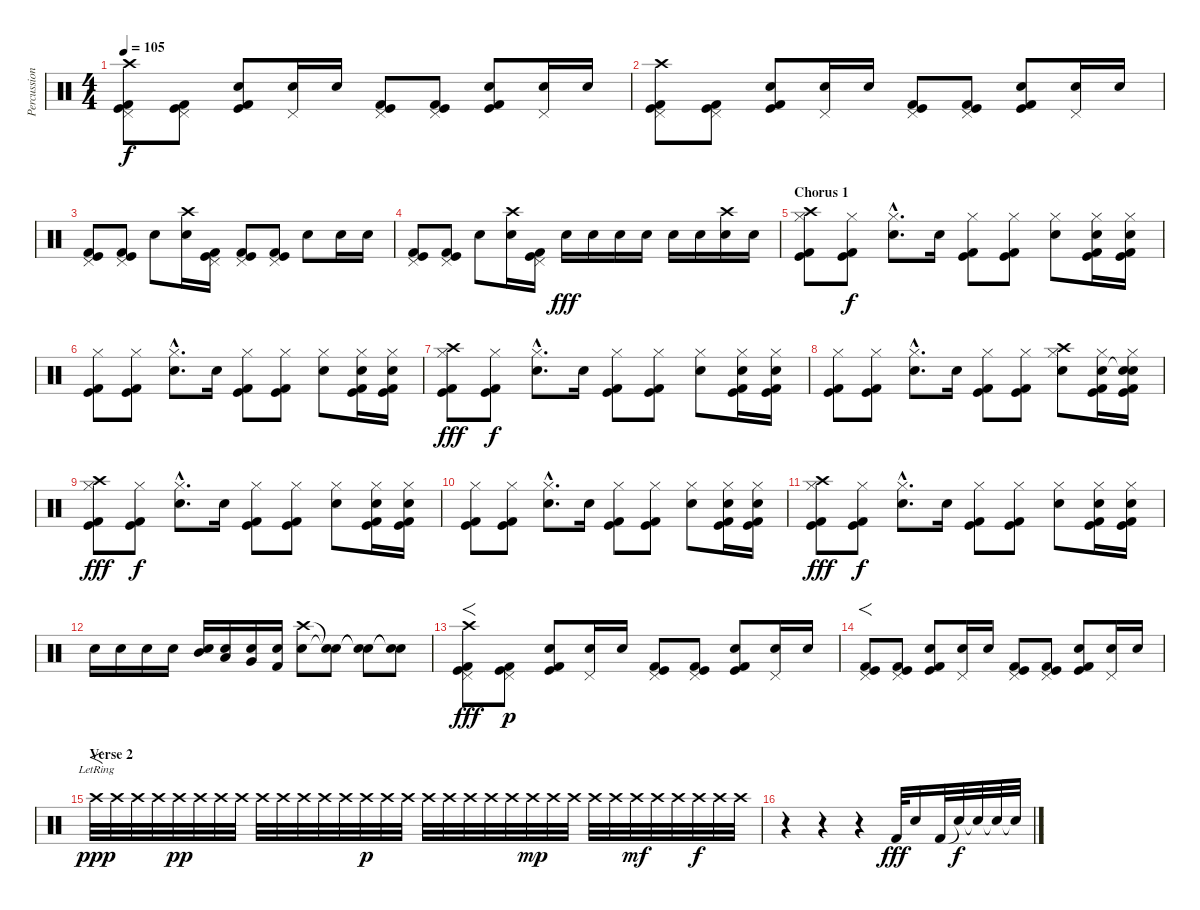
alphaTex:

\track ("Percussion" "Percussion") {instrument percussion}
\staff {score}
\articulation defaults
\ts (4 4)
\tempo 105
\clef neutral
\ks c
("Kick (hit) 2" "Kick (hit)" "Pedal Hi-Hat (hit)" "Crash high (hit)").8{dy f} ("Kick (hit) 2" "Kick (hit)" "Pedal Hi-Hat (hit)").8 ("Kick (hit)" "Kick (hit) 2" "Electric Snare (hit)").8 ("Pedal Hi-Hat (hit)" "Electric Snare (hit)").16 "Snare (hit) 2".16 ("Kick (hit) 2" "Kick (hit)" "Pedal Hi-Hat (hit)").8 ("Kick (hit) 2" "Kick (hit)" "Pedal Hi-Hat (hit)").8 ("Kick (hit)" "Kick (hit) 2" "Electric Snare (hit)").8 ("Pedal Hi-Hat (hit)" "Electric Snare (hit)").16 "Snare (hit) 2".16 |
("Kick (hit) 2" "Kick (hit)" "Pedal Hi-Hat (hit)" "Crash high (hit)").8 ("Kick (hit) 2" "Kick (hit)" "Pedal Hi-Hat (hit)").8 ("Kick (hit)" "Kick (hit) 2" "Electric Snare (hit)").8 ("Pedal Hi-Hat (hit)" "Electric Snare (hit)").16 "Snare (hit) 2".16 ("Kick (hit) 2" "Kick (hit)" "Pedal Hi-Hat (hit)").8 ("Kick (hit) 2" "Kick (hit)" "Pedal Hi-Hat (hit)").8 ("Kick (hit)" "Kick (hit) 2" "Electric Snare (hit)").8 ("Pedal Hi-Hat (hit)" "Electric Snare (hit)").16 "Electric Snare (hit)".16 |
("Kick (hit) 2" "Kick (hit)" "Pedal Hi-Hat (hit)").8 ("Kick (hit) 2" "Kick (hit)" "Pedal Hi-Hat (hit)").8 "Electric Snare (hit)".8 ("Electric Snare (hit)" "Crash high (hit)").16 ("Kick (hit) 2" "Kick (hit)" "Pedal Hi-Hat (hit)").16 ("Kick (hit) 2" "Kick (hit)" "Pedal Hi-Hat (hit)").8 ("Kick (hit) 2" "Kick (hit)" "Pedal Hi-Hat (hit)").8 "Electric Snare (hit)".8 "Electric Snare (hit)".16 "Electric Snare (hit)".16 |
("Kick (hit) 2" "Kick (hit)" "Pedal Hi-Hat (hit)").8 ("Kick (hit) 2" "Kick (hit)" "Pedal Hi-Hat (hit)").8 "Electric Snare (hit)".8 ("Electric Snare (hit)" "Crash high (hit)").16 ("Kick (hit) 2" "Kick (hit)" "Pedal Hi-Hat (hit)").16 "Electric Snare (hit)".16{dy fff} "Electric Snare (hit)".16 "Electric Snare (hit)".16 "Electric Snare (hit)".16 "Snare (hit) 2".16 "Snare (hit) 2".16 ("Snare (hit) 2" "Crash high (hit)").16 "Snare (hit) 2".16 |
\section ("" "Chorus 1")
("Kick (hit)" "Kick (hit) 2" "Hi-Hat (closed)" "Crash high (hit)").8 ("Kick (hit)" "Kick (hit) 2" "Hi-Hat (closed)").8{dy f} ("Electric Snare (hit)"{hac} "Hi-Hat (closed)"{hac}).8{d} "Electric Snare (hit)".16 ("Kick (hit)" "Kick (hit) 2" "Hi-Hat (closed)").8 ("Kick (hit)" "Kick (hit) 2" "Hi-Hat (closed)").8 ("Electric Snare (hit)" "Hi-Hat (closed)").8 ("Kick (hit) 2" "Kick (hit)" "Electric Snare (hit)" "Hi-Hat (closed)").16 ("Kick (hit) 2" "Kick (hit)" "Electric Snare (hit)" "Hi-Hat (closed)").16 |
("Kick (hit)" "Kick (hit) 2" "Hi-Hat (closed)").8 ("Kick (hit)" "Kick (hit) 2" "Hi-Hat (closed)").8 ("Electric Snare (hit)"{hac} "Hi-Hat (closed)"{hac}).8{d} "Electric Snare (hit)".16 ("Kick (hit)" "Kick (hit) 2" "Hi-Hat (closed)").8 ("Kick (hit)" "Kick (hit) 2" "Hi-Hat (closed)").8 ("Electric Snare (hit)" "Hi-Hat (closed)").8 ("Kick (hit) 2" "Kick (hit)" "Electric Snare (hit)" "Hi-Hat (closed)").16 ("Kick (hit) 2" "Kick (hit)" "Electric Snare (hit)" "Hi-Hat (closed)").16 |
("Kick (hit)" "Kick (hit) 2" "Hi-Hat (closed)" "Crash high (hit)").8{dy fff} ("Kick (hit)" "Kick (hit) 2" "Hi-Hat (closed)").8{dy f} ("Electric Snare (hit)"{hac} "Hi-Hat (closed)"{hac}).8{d} "Electric Snare (hit)".16 ("Kick (hit)" "Kick (hit) 2" "Hi-Hat (closed)").8 ("Kick (hit)" "Kick (hit) 2" "Hi-Hat (closed)").8 ("Electric Snare (hit)" "Hi-Hat (closed)").8 ("Kick (hit) 2" "Kick (hit)" "Electric Snare (hit)" "Hi-Hat (closed)").16 ("Kick (hit) 2" "Kick (hit)" "Electric Snare (hit)" "Hi-Hat (closed)").16 |
("Kick (hit)" "Kick (hit) 2" "Hi-Hat (closed)").8 ("Kick (hit)" "Kick (hit) 2" "Hi-Hat (closed)").8 ("Electric Snare (hit)"{hac} "Hi-Hat (closed)"{hac}).8{d} "Electric Snare (hit)".16 ("Kick (hit)" "Kick (hit) 2" "Hi-Hat (closed)").8 ("Kick (hit)" "Kick (hit) 2" "Hi-Hat (closed)").8 ("Crash high (hit)" "Electric Snare (hit)" "Hi-Hat (closed)").8 ("Kick (hit) 2" "Kick (hit)" "Electric Snare (hit)" "Hi-Hat (closed)").16 ("Kick (hit) 2" "Kick (hit)" "Snare (hit)"{t} "Electric Snare (hit)" "Hi-Hat (closed)").16 |
("Kick (hit)" "Kick (hit) 2" "Hi-Hat (closed)" "Crash high (hit)").8{dy fff} ("Kick (hit)" "Kick (hit) 2" "Hi-Hat (closed)").8{dy f} ("Electric Snare (hit)"{hac} "Hi-Hat (closed)"{hac}).8{d} "Electric Snare (hit)".16 ("Kick (hit)" "Kick (hit) 2" "Hi-Hat (closed)").8 ("Kick (hit)" "Kick (hit) 2" "Hi-Hat (closed)").8 ("Electric Snare (hit)" "Hi-Hat (closed)").8 ("Kick (hit) 2" "Kick (hit)" "Electric Snare (hit)" "Hi-Hat (closed)").16 ("Kick (hit) 2" "Kick (hit)" "Electric Snare (hit)" "Hi-Hat (closed)").16 |
("Kick (hit)" "Kick (hit) 2" "Hi-Hat (closed)").8 ("Kick (hit)" "Kick (hit) 2" "Hi-Hat (closed)").8 ("Electric Snare (hit)"{hac} "Hi-Hat (closed)"{hac}).8{d} "Electric Snare (hit)".16 ("Kick (hit)" "Kick (hit) 2" "Hi-Hat (closed)").8 ("Kick (hit)" "Kick (hit) 2" "Hi-Hat (closed)").8 ("Electric Snare (hit)" "Hi-Hat (closed)").8 ("Kick (hit) 2" "Kick (hit)" "Electric Snare (hit)" "Hi-Hat (closed)").16 ("Kick (hit) 2" "Kick (hit)" "Electric Snare (hit)" "Hi-Hat (closed)").16 |
("Kick (hit)" "Kick (hit) 2" "Hi-Hat (closed)" "Crash high (hit)").8{dy fff} ("Kick (hit)" "Kick (hit) 2" "Hi-Hat (closed)").8{dy f} ("Electric Snare (hit)"{hac} "Hi-Hat (closed)"{hac}).8{d} "Electric Snare (hit)".16 ("Kick (hit)" "Kick (hit) 2" "Hi-Hat (closed)").8 ("Kick (hit)" "Kick (hit) 2" "Hi-Hat (closed)").8 ("Electric Snare (hit)" "Hi-Hat (closed)").8 ("Kick (hit) 2" "Kick (hit)" "Electric Snare (hit)" "Hi-Hat (closed)").16 ("Kick (hit) 2" "Kick (hit)" "Electric Snare (hit)" "Hi-Hat (closed)").16 |
"Electric Snare (hit)".16 "Snare (hit) 2".16 "Electric Snare (hit)".16 "Snare (hit) 2".16 ("Mid Tom (hit)" "Electric Snare (hit)").16 ("Low Tom (hit)" "Snare (hit) 2").16 ("Very Low Tom (hit)" "Electric Snare (hit)").16 ("Kick (hit) 2" "Snare (hit) 2").16 ("Electric Snare (hit)" "Crash high (hit)").8 ("Snare (hit)"{t} "Snare (hit)"{t}).8 ("Snare (hit)"{t} "Snare (hit)"{t}).8 ("Snare (hit)"{t} "Snare (hit)"{t}).8 |
("Kick (hit) 2" "Kick (hit)" "Pedal Hi-Hat (hit)" "Crash high (hit)").8{f dy fff} ("Kick (hit) 2" "Kick (hit)" "Pedal Hi-Hat (hit)").8{dy p} ("Kick (hit)" "Kick (hit) 2" "Electric Snare (hit)").8 ("Pedal Hi-Hat (hit)" "Electric Snare (hit)").16 "Snare (hit) 2".16 ("Kick (hit) 2" "Kick (hit)" "Pedal Hi-Hat (hit)").8 ("Kick (hit) 2" "Kick (hit)" "Pedal Hi-Hat (hit)").8 ("Kick (hit)" "Kick (hit) 2" "Electric Snare (hit)").8 ("Pedal Hi-Hat (hit)" "Electric Snare (hit)").16 "Snare (hit) 2".16 |
("Kick (hit) 2" "Kick (hit)" "Pedal Hi-Hat (hit)").8{f} ("Kick (hit) 2" "Kick (hit)" "Pedal Hi-Hat (hit)").8 ("Kick (hit)" "Kick (hit) 2" "Electric Snare (hit)").8 ("Pedal Hi-Hat (hit)" "Electric Snare (hit)").16 "Snare (hit) 2".16 ("Kick (hit) 2" "Kick (hit)" "Pedal Hi-Hat (hit)").8 ("Kick (hit) 2" "Kick (hit)" "Pedal Hi-Hat (hit)").8 ("Kick (hit)" "Kick (hit) 2" "Electric Snare (hit)").8 ("Pedal Hi-Hat (hit)" "Electric Snare (hit)").16 "Snare (hit) 2".16 |
\section ("" "Verse 2")
"Crash high (hit)"{lr}.32{f dy ppp} "Crash high (hit)".32 "Crash high (hit)".32 "Crash high (hit)".32 "Crash high (hit)".32{dy pp} "Crash high (hit)".32 "Crash high (hit)".32 "Crash high (hit)".32 "Crash high (hit)".32 "Crash high (hit)".32 "Crash high (hit)".32 "Crash high (hit)".32 "Crash high (hit)".32 "Crash high (hit)".32{dy p} "Crash high (hit)".32 "Crash high (hit)".32 "Crash high (hit)".32 "Crash high (hit)".32 "Crash high (hit)".32 "Crash high (hit)".32 "Crash high (hit)".32 "Crash high (hit)".32{dy mp} "Crash high (hit)".32 "Crash high (hit)".32 "Crash high (hit)".32 "Crash high (hit)".32 "Crash high (hit)".32{dy mf} "Crash high (hit)".32 "Crash high (hit)".32 "Crash high (hit)".32{dy f} "Crash high (hit)".32 "Crash high (hit)".32 |
r.4 r.4 r.4 "Kick (hit) 2".32{dy fff} "Electric Snare (hit)".16 "Kick (hit) 2".32 "Snare (hit)"{t}.32{dy f} "Snare (hit)"{t}.32 "Snare (hit)"{t}.32 "Snare (hit)"{t}.32
